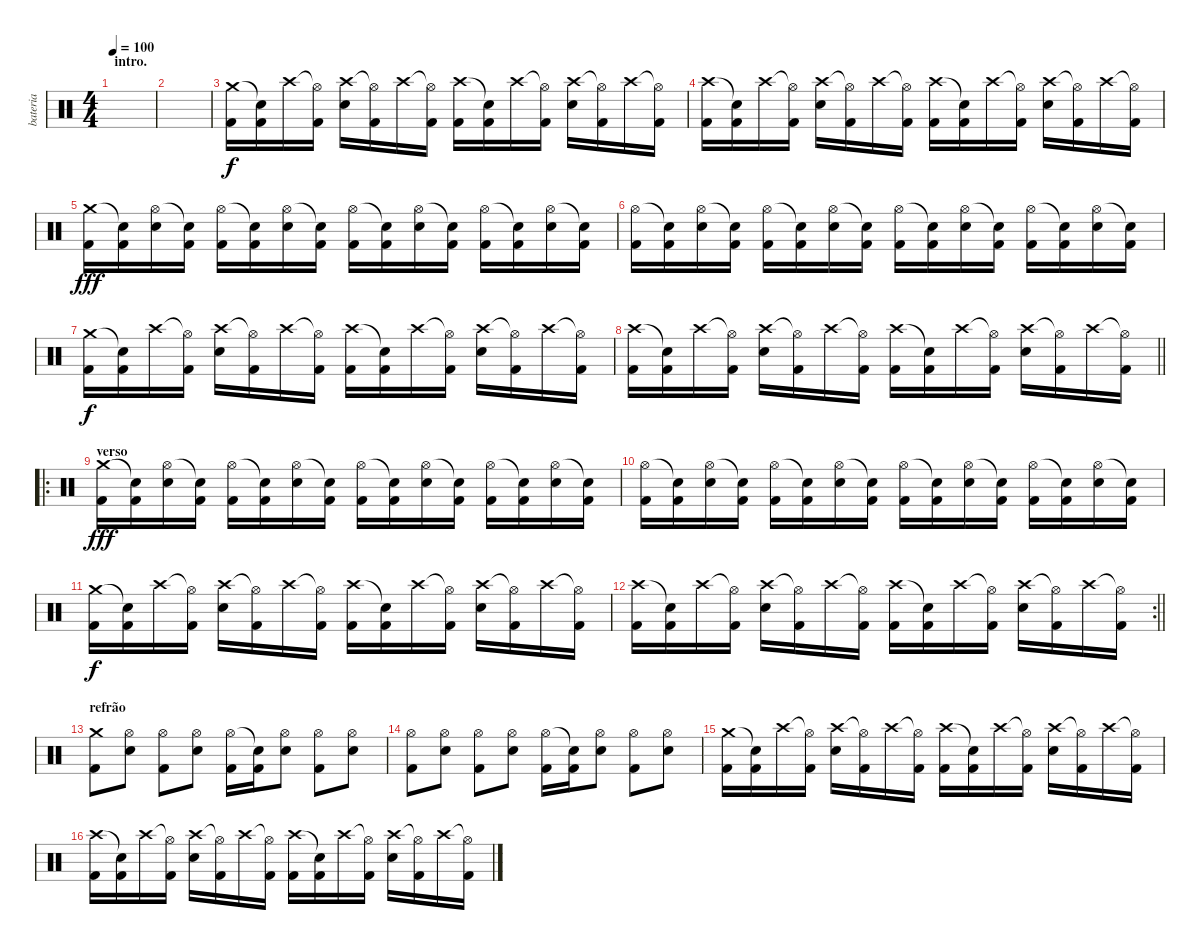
\track ("bateria" "bateria") {instrument percussion}
\staff {score}
\articulation defaults
\ts (4 4)
\section ("" "intro.")
\tempo 100
\clef neutral
\ks c
|
|
("Crash medium (hit)" "Kick (hit) 2").16 ("Snare (hit)"{t} "Kick (hit) 2").16 "Crash high (hit)".16 ("Hi-Hat (open)"{t} "Kick (hit) 2").16 ("Crash high (hit)" "Electric Snare (hit)").16 ("Hi-Hat (open)"{t} "Kick (hit) 2").16 "Crash high (hit)".16 ("Hi-Hat (open)"{t} "Kick (hit) 2").16 ("Crash high (hit)" "Kick (hit) 2").16 ("Snare (hit)"{t} "Kick (hit) 2").16 "Crash high (hit)".16 ("Hi-Hat (open)"{t} "Kick (hit) 2").16 ("Crash high (hit)" "Electric Snare (hit)").16 ("Hi-Hat (open)"{t} "Kick (hit) 2").16 "Crash high (hit)".16 ("Hi-Hat (open)"{t} "Kick (hit) 2").16 |
("Crash high (hit)" "Kick (hit) 2").16 ("Snare (hit)"{t} "Kick (hit) 2").16 "Crash high (hit)".16 ("Hi-Hat (open)"{t} "Kick (hit) 2").16 ("Crash high (hit)" "Electric Snare (hit)").16 ("Hi-Hat (open)"{t} "Kick (hit) 2").16 "Crash high (hit)".16 ("Hi-Hat (open)"{t} "Kick (hit) 2").16 ("Crash high (hit)" "Kick (hit) 2").16 ("Snare (hit)"{t} "Kick (hit) 2").16 "Crash high (hit)".16 ("Hi-Hat (open)"{t} "Kick (hit) 2").16 ("Crash high (hit)" "Electric Snare (hit)").16 ("Hi-Hat (open)"{t} "Kick (hit) 2").16 "Crash high (hit)".16 ("Hi-Hat (open)"{t} "Kick (hit) 2").16 |
("Crash medium (hit)" "Kick (hit) 2").16{dy fff} ("Snare (hit)"{t} "Kick (hit) 2").16 ("Hi-Hat (open)" "Electric Snare (hit)").16 ("Snare (hit)"{t} "Kick (hit) 2").16 ("Hi-Hat (open)" "Kick (hit) 2").16 ("Snare (hit)"{t} "Kick (hit) 2").16 ("Hi-Hat (open)" "Electric Snare (hit)").16 ("Snare (hit)"{t} "Kick (hit) 2").16 ("Hi-Hat (open)" "Kick (hit) 2").16 ("Snare (hit)"{t} "Kick (hit) 2").16 ("Hi-Hat (open)" "Electric Snare (hit)").16 ("Snare (hit)"{t} "Kick (hit) 2").16 ("Hi-Hat (open)" "Kick (hit) 2").16 ("Snare (hit)"{t} "Kick (hit) 2").16 ("Hi-Hat (open)" "Electric Snare (hit)").16 ("Snare (hit)"{t} "Kick (hit) 2").16 |
("Hi-Hat (open)" "Kick (hit) 2").16 ("Snare (hit)"{t} "Kick (hit) 2").16 ("Hi-Hat (open)" "Electric Snare (hit)").16 ("Snare (hit)"{t} "Kick (hit) 2").16 ("Hi-Hat (open)" "Kick (hit) 2").16 ("Snare (hit)"{t} "Kick (hit) 2").16 ("Hi-Hat (open)" "Electric Snare (hit)").16 ("Snare (hit)"{t} "Kick (hit) 2").16 ("Hi-Hat (open)" "Kick (hit) 2").16 ("Snare (hit)"{t} "Kick (hit) 2").16 ("Hi-Hat (open)" "Electric Snare (hit)").16 ("Snare (hit)"{t} "Kick (hit) 2").16 ("Hi-Hat (open)" "Kick (hit) 2").16 ("Snare (hit)"{t} "Kick (hit) 2").16 ("Hi-Hat (open)" "Electric Snare (hit)").16 ("Snare (hit)"{t} "Kick (hit) 2").16 |
("Crash medium (hit)" "Kick (hit) 2").16{dy f} ("Snare (hit)"{t} "Kick (hit) 2").16 "Crash high (hit)".16 ("Hi-Hat (open)"{t} "Kick (hit) 2").16 ("Crash high (hit)" "Electric Snare (hit)").16 ("Hi-Hat (open)"{t} "Kick (hit) 2").16 "Crash high (hit)".16 ("Hi-Hat (open)"{t} "Kick (hit) 2").16 ("Crash high (hit)" "Kick (hit) 2").16 ("Snare (hit)"{t} "Kick (hit) 2").16 "Crash high (hit)".16 ("Hi-Hat (open)"{t} "Kick (hit) 2").16 ("Crash high (hit)" "Electric Snare (hit)").16 ("Hi-Hat (open)"{t} "Kick (hit) 2").16 "Crash high (hit)".16 ("Hi-Hat (open)"{t} "Kick (hit) 2").16 |
\barLineRight lightlight
("Crash high (hit)" "Kick (hit) 2").16 ("Snare (hit)"{t} "Kick (hit) 2").16 "Crash high (hit)".16 ("Hi-Hat (open)"{t} "Kick (hit) 2").16 ("Crash high (hit)" "Electric Snare (hit)").16 ("Hi-Hat (open)"{t} "Kick (hit) 2").16 "Crash high (hit)".16 ("Hi-Hat (open)"{t} "Kick (hit) 2").16 ("Crash high (hit)" "Kick (hit) 2").16 ("Snare (hit)"{t} "Kick (hit) 2").16 "Crash high (hit)".16 ("Hi-Hat (open)"{t} "Kick (hit) 2").16 ("Crash high (hit)" "Electric Snare (hit)").16 ("Hi-Hat (open)"{t} "Kick (hit) 2").16 "Crash high (hit)".16 ("Hi-Hat (open)"{t} "Kick (hit) 2").16 |
\ro
\section ("" "verso")
("Crash medium (hit)" "Kick (hit) 2").16{dy fff} ("Snare (hit)"{t} "Kick (hit) 2").16 ("Hi-Hat (open)" "Electric Snare (hit)").16 ("Snare (hit)"{t} "Kick (hit) 2").16 ("Hi-Hat (open)" "Kick (hit) 2").16 ("Snare (hit)"{t} "Kick (hit) 2").16 ("Hi-Hat (open)" "Electric Snare (hit)").16 ("Snare (hit)"{t} "Kick (hit) 2").16 ("Hi-Hat (open)" "Kick (hit) 2").16 ("Snare (hit)"{t} "Kick (hit) 2").16 ("Hi-Hat (open)" "Electric Snare (hit)").16 ("Snare (hit)"{t} "Kick (hit) 2").16 ("Hi-Hat (open)" "Kick (hit) 2").16 ("Snare (hit)"{t} "Kick (hit) 2").16 ("Hi-Hat (open)" "Electric Snare (hit)").16 ("Snare (hit)"{t} "Kick (hit) 2").16 |
("Hi-Hat (open)" "Kick (hit) 2").16 ("Snare (hit)"{t} "Kick (hit) 2").16 ("Hi-Hat (open)" "Electric Snare (hit)").16 ("Snare (hit)"{t} "Kick (hit) 2").16 ("Hi-Hat (open)" "Kick (hit) 2").16 ("Snare (hit)"{t} "Kick (hit) 2").16 ("Hi-Hat (open)" "Electric Snare (hit)").16 ("Snare (hit)"{t} "Kick (hit) 2").16 ("Hi-Hat (open)" "Kick (hit) 2").16 ("Snare (hit)"{t} "Kick (hit) 2").16 ("Hi-Hat (open)" "Electric Snare (hit)").16 ("Snare (hit)"{t} "Kick (hit) 2").16 ("Hi-Hat (open)" "Kick (hit) 2").16 ("Snare (hit)"{t} "Kick (hit) 2").16 ("Hi-Hat (open)" "Electric Snare (hit)").16 ("Snare (hit)"{t} "Kick (hit) 2").16 |
("Crash medium (hit)" "Kick (hit) 2").16{dy f} ("Snare (hit)"{t} "Kick (hit) 2").16 "Crash high (hit)".16 ("Hi-Hat (open)"{t} "Kick (hit) 2").16 ("Crash high (hit)" "Electric Snare (hit)").16 ("Hi-Hat (open)"{t} "Kick (hit) 2").16 "Crash high (hit)".16 ("Hi-Hat (open)"{t} "Kick (hit) 2").16 ("Crash high (hit)" "Kick (hit) 2").16 ("Snare (hit)"{t} "Kick (hit) 2").16 "Crash high (hit)".16 ("Hi-Hat (open)"{t} "Kick (hit) 2").16 ("Crash high (hit)" "Electric Snare (hit)").16 ("Hi-Hat (open)"{t} "Kick (hit) 2").16 "Crash high (hit)".16 ("Hi-Hat (open)"{t} "Kick (hit) 2").16 |
\rc 2
\barLineRight lightlight
("Crash high (hit)" "Kick (hit) 2").16 ("Snare (hit)"{t} "Kick (hit) 2").16 "Crash high (hit)".16 ("Hi-Hat (open)"{t} "Kick (hit) 2").16 ("Crash high (hit)" "Electric Snare (hit)").16 ("Hi-Hat (open)"{t} "Kick (hit) 2").16 "Crash high (hit)".16 ("Hi-Hat (open)"{t} "Kick (hit) 2").16 ("Crash high (hit)" "Kick (hit) 2").16 ("Snare (hit)"{t} "Kick (hit) 2").16 "Crash high (hit)".16 ("Hi-Hat (open)"{t} "Kick (hit) 2").16 ("Crash high (hit)" "Electric Snare (hit)").16 ("Hi-Hat (open)"{t} "Kick (hit) 2").16 "Crash high (hit)".16 ("Hi-Hat (open)"{t} "Kick (hit) 2").16 |
\section ("" "refrão")
("Crash medium (hit)" "Kick (hit) 2").8 ("Hi-Hat (open)" "Electric Snare (hit)").8 ("Hi-Hat (open)" "Kick (hit) 2").8 ("Hi-Hat (open)" "Electric Snare (hit)").8 ("Hi-Hat (open)" "Kick (hit) 2").16 ("Snare (hit)"{t} "Kick (hit) 2").16 ("Hi-Hat (open)" "Electric Snare (hit)").8 ("Hi-Hat (open)" "Kick (hit) 2").8 ("Hi-Hat (open)" "Electric Snare (hit)").8 |
("Hi-Hat (open)" "Kick (hit) 2").8 ("Hi-Hat (open)" "Electric Snare (hit)").8 ("Hi-Hat (open)" "Kick (hit) 2").8 ("Hi-Hat (open)" "Electric Snare (hit)").8 ("Hi-Hat (open)" "Kick (hit) 2").16 ("Snare (hit)"{t} "Kick (hit) 2").16 ("Hi-Hat (open)" "Electric Snare (hit)").8 ("Hi-Hat (open)" "Kick (hit) 2").8 ("Hi-Hat (open)" "Electric Snare (hit)").8 |
("Crash medium (hit)" "Kick (hit) 2").16 ("Snare (hit)"{t} "Kick (hit) 2").16 "Crash high (hit)".16 ("Hi-Hat (open)"{t} "Kick (hit) 2").16 ("Crash high (hit)" "Electric Snare (hit)").16 ("Hi-Hat (open)"{t} "Kick (hit) 2").16 "Crash high (hit)".16 ("Hi-Hat (open)"{t} "Kick (hit) 2").16 ("Crash high (hit)" "Kick (hit) 2").16 ("Snare (hit)"{t} "Kick (hit) 2").16 "Crash high (hit)".16 ("Hi-Hat (open)"{t} "Kick (hit) 2").16 ("Crash high (hit)" "Electric Snare (hit)").16 ("Hi-Hat (open)"{t} "Kick (hit) 2").16 "Crash high (hit)".16 ("Hi-Hat (open)"{t} "Kick (hit) 2").16 |
("Crash high (hit)" "Kick (hit) 2").16 ("Snare (hit)"{t} "Kick (hit) 2").16 "Crash high (hit)".16 ("Hi-Hat (open)"{t} "Kick (hit) 2").16 ("Crash high (hit)" "Electric Snare (hit)").16 ("Hi-Hat (open)"{t} "Kick (hit) 2").16 "Crash high (hit)".16 ("Hi-Hat (open)"{t} "Kick (hit) 2").16 ("Crash high (hit)" "Kick (hit) 2").16 ("Snare (hit)"{t} "Kick (hit) 2").16 "Crash high (hit)".16 ("Hi-Hat (open)"{t} "Kick (hit) 2").16 ("Crash high (hit)" "Electric Snare (hit)").16 ("Hi-Hat (open)"{t} "Kick (hit) 2").16 "Crash high (hit)".16 ("Hi-Hat (open)"{t} "Kick (hit) 2").16
